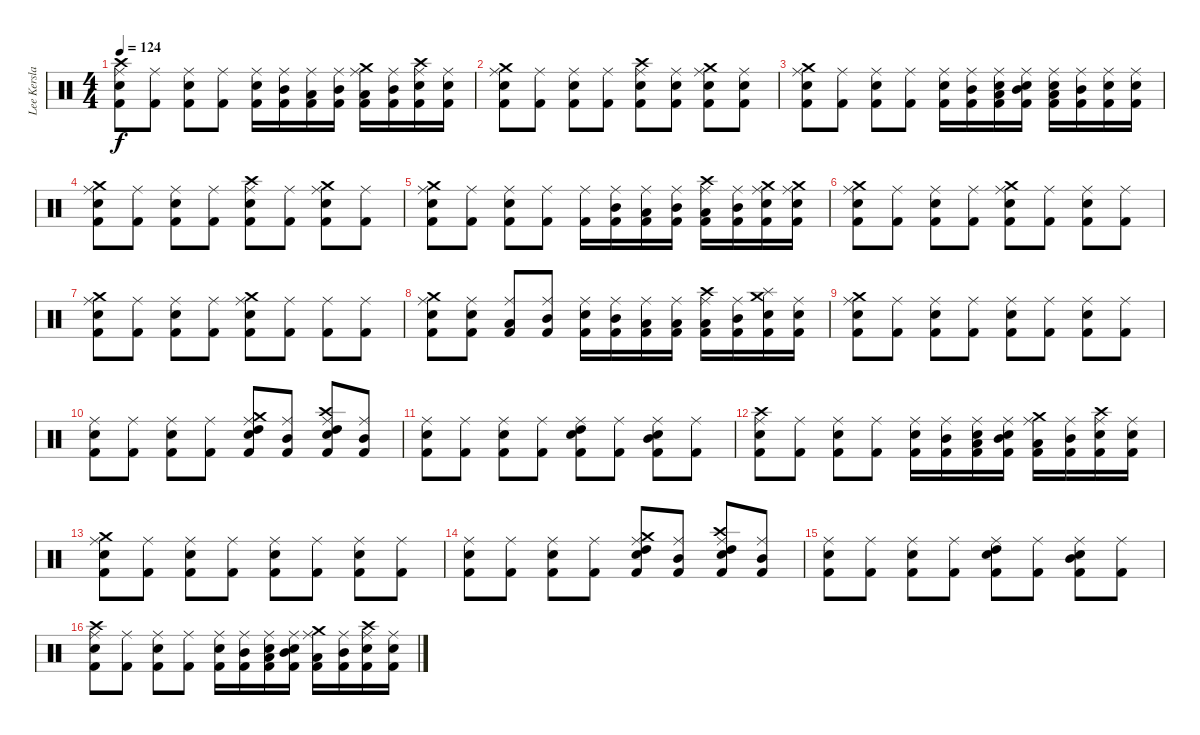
\track ("Lee Kerslake" "Lee Kersla") {instrument percussion}
\staff {score}
\articulation defaults
\ts (4 4)
\tempo 124
\clef neutral
\ks c
("Kick (hit) 2" "Electric Snare (hit)" "Crash high (hit)" "Ride (middle)").8{dy f} ("Kick (hit) 2" "Ride (middle)").8 ("Kick (hit) 2" "Electric Snare (hit)" "Ride (middle)").8 ("Kick (hit) 2" "Ride (middle)").8 ("Kick (hit) 2" "Electric Snare (hit)" "Ride (middle)").16 ("Kick (hit) 2" "Mid Tom (hit)" "Ride (middle)").16 ("Low Tom (hit)" "Kick (hit) 2" "Ride (middle)").16 ("Kick (hit) 2" "Mid Tom (hit)" "Ride (middle)").16 ("Kick (hit) 2" "Low Tom (hit)" "Crash medium (hit)" "Ride (middle)").16 ("Kick (hit) 2" "Mid Tom (hit)" "Ride (middle)").16 ("Kick (hit) 2" "Electric Snare (hit)" "Crash high (hit)" "Ride (middle)").16 ("Kick (hit) 2" "Electric Snare (hit)" "Ride (middle)").16 |
("Kick (hit) 2" "Electric Snare (hit)" "Crash medium (hit)" "Ride (middle)").8 ("Kick (hit) 2" "Ride (middle)").8 ("Kick (hit) 2" "Electric Snare (hit)" "Ride (middle)").8 ("Kick (hit) 2" "Ride (middle)").8 ("Kick (hit) 2" "Electric Snare (hit)" "Crash high (hit)" "Ride (middle)").8 ("Kick (hit) 2" "Electric Snare (hit)" "Ride (middle)").8 ("Kick (hit) 2" "Electric Snare (hit)" "Crash medium (hit)" "Ride (middle)").8 ("Kick (hit) 2" "Electric Snare (hit)" "Ride (middle)").8 |
("Kick (hit) 2" "Electric Snare (hit)" "Crash medium (hit)" "Ride (middle)").8 ("Kick (hit) 2" "Ride (middle)").8 ("Kick (hit) 2" "Electric Snare (hit)" "Ride (middle)").8 ("Kick (hit) 2" "Ride (middle)").8 ("Kick (hit) 2" "Electric Snare (hit)" "Ride (middle)").16 ("Kick (hit) 2" "Mid Tom (hit)" "Ride (middle)").16 ("Low Tom (hit)" "Kick (hit) 2" "Electric Snare (hit)" "Ride (middle)").16 ("Kick (hit) 2" "Mid Tom (hit)" "Electric Snare (hit)" "Ride (middle)").16 ("Kick (hit) 2" "Low Tom (hit)" "Electric Snare (hit)" "Ride (middle)").16 ("Kick (hit) 2" "Mid Tom (hit)" "Ride (middle)").16 ("Kick (hit) 2" "Electric Snare (hit)" "Ride (middle)").16 ("Kick (hit) 2" "Electric Snare (hit)" "Ride (middle)").16 |
("Kick (hit) 2" "Electric Snare (hit)" "Crash medium (hit)" "Ride (middle)").8 ("Kick (hit) 2" "Ride (middle)").8 ("Kick (hit) 2" "Electric Snare (hit)" "Ride (middle)").8 ("Kick (hit) 2" "Ride (middle)").8 ("Kick (hit) 2" "Electric Snare (hit)" "Crash high (hit)" "Ride (middle)").8 ("Kick (hit) 2" "Ride (middle)").8 ("Kick (hit) 2" "Electric Snare (hit)" "Crash medium (hit)" "Ride (middle)").8 ("Kick (hit) 2" "Ride (middle)").8 |
("Kick (hit) 2" "Electric Snare (hit)" "Crash medium (hit)" "Ride (middle)").8 ("Kick (hit) 2" "Ride (middle)").8 ("Kick (hit) 2" "Electric Snare (hit)" "Ride (middle)").8 ("Kick (hit) 2" "Ride (middle)").8 ("Kick (hit) 2" "Ride (middle)").16 ("Kick (hit) 2" "Mid Tom (hit)" "Ride (middle)").16 ("Low Tom (hit)" "Kick (hit) 2" "Ride (middle)").16 ("Kick (hit) 2" "Mid Tom (hit)" "Ride (middle)").16 ("Kick (hit) 2" "Low Tom (hit)" "Crash high (hit)" "Ride (middle)").16 ("Kick (hit) 2" "Mid Tom (hit)" "Ride (middle)").16 ("Kick (hit) 2" "Electric Snare (hit)" "Crash medium (hit)" "Ride (middle)").16 ("Kick (hit) 2" "Electric Snare (hit)" "Crash medium (hit)" "Ride (middle)").16 |
("Kick (hit) 2" "Electric Snare (hit)" "Crash medium (hit)" "Ride (middle)").8 ("Kick (hit) 2" "Ride (middle)").8 ("Kick (hit) 2" "Electric Snare (hit)" "Ride (middle)").8 ("Kick (hit) 2" "Ride (middle)").8 ("Kick (hit) 2" "Electric Snare (hit)" "Crash medium (hit)" "Ride (middle)").8 ("Kick (hit) 2" "Ride (middle)").8 ("Kick (hit) 2" "Electric Snare (hit)" "Ride (middle)").8 ("Kick (hit) 2" "Ride (middle)").8 |
("Kick (hit) 2" "Electric Snare (hit)" "Crash medium (hit)" "Ride (middle)").8 ("Kick (hit) 2" "Ride (middle)").8 ("Kick (hit) 2" "Electric Snare (hit)" "Ride (middle)").8 ("Kick (hit) 2" "Ride (middle)").8 ("Kick (hit) 2" "Electric Snare (hit)" "Crash medium (hit)" "Ride (middle)").8 ("Kick (hit) 2" "Ride (middle)").8 ("Kick (hit) 2" "Ride (middle)").8 ("Kick (hit) 2" "Ride (middle)").8 |
("Kick (hit) 2" "Electric Snare (hit)" "Crash medium (hit)" "Ride (middle)").8 ("Kick (hit) 2" "Electric Snare (hit)" "Ride (middle)").8 ("Kick (hit) 2" "Low Tom (hit)" "Ride (middle)").8 ("Kick (hit) 2" "Mid Tom (hit)" "Ride (middle)").8 ("Kick (hit) 2" "Electric Snare (hit)" "Ride (middle)").16 ("Kick (hit) 2" "Mid Tom (hit)" "Ride (middle)").16 ("Kick (hit) 2" "Low Tom (hit)" "Ride (middle)").16 ("Kick (hit) 2" "Low Floor Tom (hit)" "Ride (middle)").16 ("Kick (hit) 2" "Low Tom (hit)" "Crash high (hit)" "Ride (middle)").16 ("Kick (hit) 2" "Mid Tom (hit)" "Ride (middle)").16 ("Kick (hit) 2" "Electric Snare (hit)" "Crash medium (hit)" "Splash (hit)").16 ("Kick (hit) 2" "Electric Snare (hit)" "Ride (middle)").16 |
("Kick (hit) 2" "Electric Snare (hit)" "Crash medium (hit)" "Ride (middle)").8 ("Kick (hit) 2" "Ride (middle)").8 ("Kick (hit) 2" "Electric Snare (hit)" "Ride (middle)").8 ("Kick (hit) 2" "Ride (middle)").8 ("Kick (hit) 2" "Electric Snare (hit)" "Ride (middle)").8 ("Kick (hit) 2" "Ride (middle)").8 ("Kick (hit) 2" "Electric Snare (hit)" "Ride (middle)").8 ("Kick (hit) 2" "Ride (middle)").8 |
("Kick (hit) 2" "Electric Snare (hit)" "Ride (middle)").8 ("Kick (hit) 2" "Ride (middle)").8 ("Kick (hit) 2" "Electric Snare (hit)" "Ride (middle)").8 ("Kick (hit) 2" "Ride (middle)").8 ("Kick (hit) 2" "Electric Snare (hit)" "High Tom (hit)" "Crash medium (hit)" "Ride (middle)").8 ("Kick (hit) 2" "Mid Tom (hit)" "Ride (middle)").8 ("Kick (hit) 2" "Electric Snare (hit)" "High Tom (hit)" "Crash high (hit)" "Ride (middle)").8 ("Kick (hit) 2" "Mid Tom (hit)" "Ride (middle)").8 |
("Kick (hit) 2" "Electric Snare (hit)" "Ride (middle)").8 ("Kick (hit) 2" "Ride (middle)").8 ("Kick (hit) 2" "Electric Snare (hit)" "Ride (middle)").8 ("Kick (hit) 2" "Ride (middle)").8 ("Kick (hit) 2" "Electric Snare (hit)" "High Tom (hit)" "Ride (middle)").8 ("Kick (hit) 2" "Ride (middle)").8 ("Kick (hit) 2" "Electric Snare (hit)" "Mid Tom (hit)" "Ride (middle)").8 ("Kick (hit) 2" "Ride (middle)").8 |
("Kick (hit) 2" "Electric Snare (hit)" "Crash high (hit)" "Ride (middle)").8 ("Kick (hit) 2" "Ride (middle)").8 ("Kick (hit) 2" "Electric Snare (hit)" "Ride (middle)").8 ("Kick (hit) 2" "Ride (middle)").8 ("Kick (hit) 2" "Electric Snare (hit)" "Ride (middle)").16 ("Kick (hit) 2" "Mid Tom (hit)" "Ride (middle)").16 ("Low Tom (hit)" "Kick (hit) 2" "Electric Snare (hit)" "Ride (middle)").16 ("Kick (hit) 2" "Mid Tom (hit)" "Electric Snare (hit)" "Ride (middle)").16 ("Kick (hit) 2" "Low Tom (hit)" "Crash medium (hit)" "Ride (middle)").16 ("Kick (hit) 2" "Mid Tom (hit)" "Ride (middle)").16 ("Kick (hit) 2" "Electric Snare (hit)" "Crash high (hit)" "Ride (middle)").16 ("Kick (hit) 2" "Electric Snare (hit)" "Ride (middle)").16 |
("Kick (hit) 2" "Electric Snare (hit)" "Crash medium (hit)" "Ride (middle)").8 ("Kick (hit) 2" "Ride (middle)").8 ("Kick (hit) 2" "Electric Snare (hit)" "Ride (middle)").8 ("Kick (hit) 2" "Ride (middle)").8 ("Kick (hit) 2" "Electric Snare (hit)" "Ride (middle)").8 ("Kick (hit) 2" "Ride (middle)").8 ("Kick (hit) 2" "Electric Snare (hit)" "Ride (middle)").8 ("Kick (hit) 2" "Ride (middle)").8 |
("Kick (hit) 2" "Electric Snare (hit)" "Ride (middle)").8 ("Kick (hit) 2" "Ride (middle)").8 ("Kick (hit) 2" "Electric Snare (hit)" "Ride (middle)").8 ("Kick (hit) 2" "Ride (middle)").8 ("Kick (hit) 2" "Electric Snare (hit)" "High Tom (hit)" "Crash medium (hit)" "Ride (middle)").8 ("Kick (hit) 2" "Mid Tom (hit)" "Ride (middle)").8 ("Kick (hit) 2" "Electric Snare (hit)" "High Tom (hit)" "Crash high (hit)" "Ride (middle)").8 ("Kick (hit) 2" "Mid Tom (hit)" "Ride (middle)").8 |
("Kick (hit) 2" "Electric Snare (hit)" "Ride (middle)").8 ("Kick (hit) 2" "Ride (middle)").8 ("Kick (hit) 2" "Electric Snare (hit)" "Ride (middle)").8 ("Kick (hit) 2" "Ride (middle)").8 ("Kick (hit) 2" "Electric Snare (hit)" "High Tom (hit)" "Ride (middle)").8 ("Kick (hit) 2" "Ride (middle)").8 ("Kick (hit) 2" "Electric Snare (hit)" "Mid Tom (hit)" "Ride (middle)").8 ("Kick (hit) 2" "Ride (middle)").8 |
("Kick (hit) 2" "Electric Snare (hit)" "Crash high (hit)" "Ride (middle)").8 ("Kick (hit) 2" "Ride (middle)").8 ("Kick (hit) 2" "Electric Snare (hit)" "Ride (middle)").8 ("Kick (hit) 2" "Ride (middle)").8 ("Kick (hit) 2" "Electric Snare (hit)" "Ride (middle)").16 ("Kick (hit) 2" "Mid Tom (hit)" "Ride (middle)").16 ("Low Tom (hit)" "Kick (hit) 2" "Electric Snare (hit)" "Ride (middle)").16 ("Kick (hit) 2" "Mid Tom (hit)" "Electric Snare (hit)" "Ride (middle)").16 ("Kick (hit) 2" "Low Tom (hit)" "Crash medium (hit)" "Ride (middle)").16 ("Kick (hit) 2" "Mid Tom (hit)" "Ride (middle)").16 ("Kick (hit) 2" "Electric Snare (hit)" "Crash high (hit)" "Ride (middle)").16 ("Kick (hit) 2" "Electric Snare (hit)" "Ride (middle)").16
